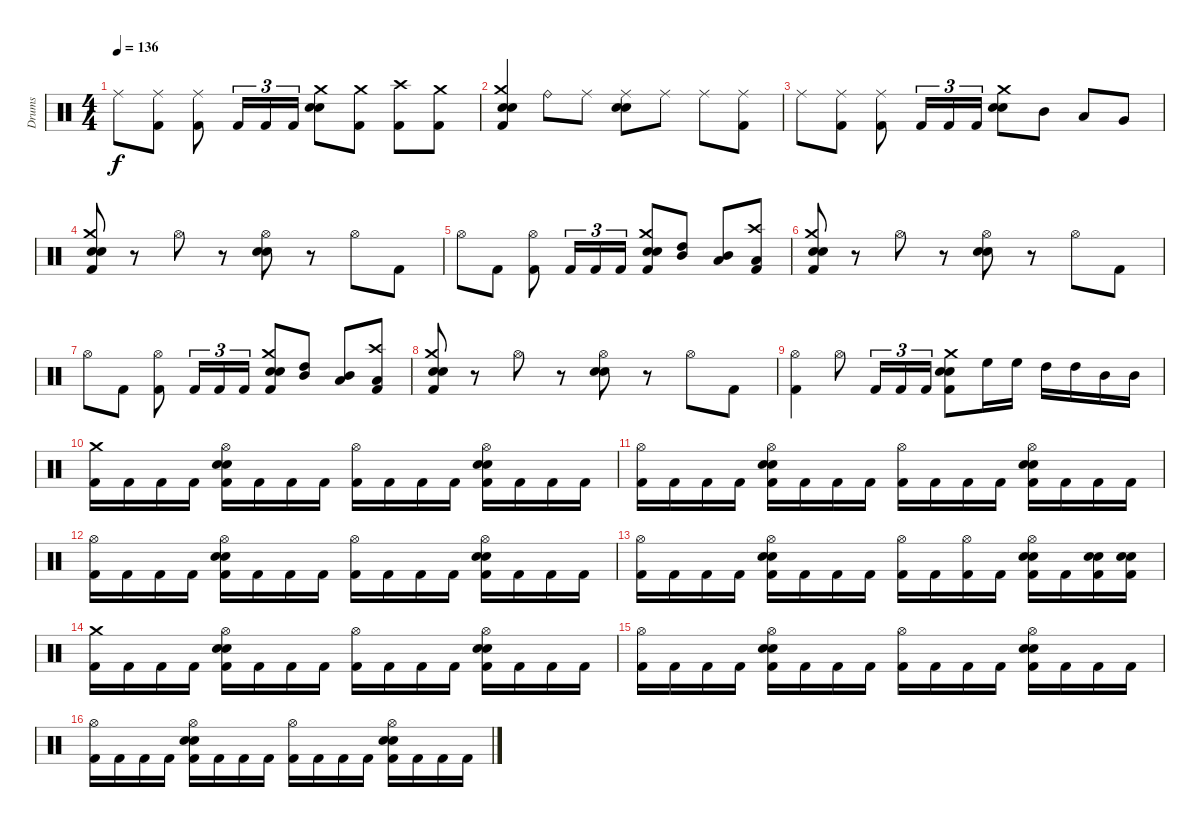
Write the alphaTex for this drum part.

\track ("Drums" "Drums") {instrument percussion}
\staff {score}
\articulation defaults
\ts (4 4)
\tempo 136
\clef neutral
\ks c "Ride (middle)".8{dy f}
("Ride (middle)" "Kick (hit) 2").8 ("Ride (middle)" "Kick (hit) 2").8 "Kick (hit) 2".16{tu (3 2)} "Kick (hit) 2".16{tu (3 2)} "Kick (hit) 2".16{tu (3 2)} ("Crash medium (hit)" "Electric Snare (hit)" "Snare (hit) 2").8 ("Crash medium (hit)" "Kick (hit) 2").8 ("Crash high (hit)" "Kick (hit) 2").8 ("Crash medium (hit)" "Kick (hit) 2").8 |
("Crash medium (hit)" "Electric Snare (hit)" "Snare (hit) 2" "Kick (hit) 2").4 "Ride (bell)".8 "Ride (middle)".8 ("Ride (middle)" "Electric Snare (hit)" "Snare (hit) 2").8 "Ride (middle)".8 "Ride (middle)".8 ("Ride (middle)" "Kick (hit) 2").8 |
"Ride (middle)".8 ("Ride (middle)" "Kick (hit) 2").8 ("Ride (middle)" "Kick (hit) 2").8 "Kick (hit) 2".16{tu (3 2)} "Kick (hit) 2".16{tu (3 2)} "Kick (hit) 2".16{tu (3 2)} ("Crash medium (hit)" "Electric Snare (hit)" "Snare (hit) 2").8 "Mid Tom (hit)".8 "Low Tom (hit)".8 "Very Low Tom (hit)".8 |
("Crash medium (hit)" "Electric Snare (hit)" "Snare (hit) 2" "Kick (hit) 2").8 r.8 "Hi-Hat (open)".8 r.8 ("Hi-Hat (open)" "Electric Snare (hit)" "Snare (hit) 2").8 r.8 "Hi-Hat (open)".8 "Kick (hit) 2".8 |
"Hi-Hat (open)".8 "Kick (hit) 2".8 ("Hi-Hat (open)" "Kick (hit) 2").8 "Kick (hit) 2".16{tu (3 2)} "Kick (hit) 2".16{tu (3 2)} "Kick (hit) 2".16{tu (3 2)} ("Crash medium (hit)" "Electric Snare (hit)" "Snare (hit) 2" "Kick (hit) 2").8 ("High Tom (hit)" "Mid Tom (hit)").8 ("Mid Tom (hit)" "Low Tom (hit)").8 ("Crash high (hit)" "Low Tom (hit)" "Kick (hit) 2").8 |
("Crash medium (hit)" "Electric Snare (hit)" "Snare (hit) 2" "Kick (hit) 2").8 r.8 "Hi-Hat (open)".8 r.8 ("Hi-Hat (open)" "Electric Snare (hit)" "Snare (hit) 2").8 r.8 "Hi-Hat (open)".8 "Kick (hit) 2".8 |
"Hi-Hat (open)".8 "Kick (hit) 2".8 ("Hi-Hat (open)" "Kick (hit) 2").8 "Kick (hit) 2".16{tu (3 2)} "Kick (hit) 2".16{tu (3 2)} "Kick (hit) 2".16{tu (3 2)} ("Crash medium (hit)" "Electric Snare (hit)" "Snare (hit) 2" "Kick (hit) 2").8 ("High Tom (hit)" "Mid Tom (hit)").8 ("Mid Tom (hit)" "Low Tom (hit)").8 ("Crash high (hit)" "Low Tom (hit)" "Kick (hit) 2").8 |
("Crash medium (hit)" "Electric Snare (hit)" "Snare (hit) 2" "Kick (hit) 2").8 r.8 "Hi-Hat (open)".8 r.8 ("Hi-Hat (open)" "Electric Snare (hit)" "Snare (hit) 2").8 r.8 "Hi-Hat (open)".8 "Kick (hit) 2".8 |
("Hi-Hat (open)" "Kick (hit) 2").4 "Hi-Hat (open)".8 "Kick (hit) 2".16{tu (3 2)} "Kick (hit) 2".16{tu (3 2)} "Kick (hit) 2".16{tu (3 2)} ("Crash medium (hit)" "Electric Snare (hit)" "Snare (hit) 2" "Kick (hit) 2").8 "High Floor Tom (hit)".16 "High Floor Tom (hit)".16 "High Tom (hit)".16 "High Tom (hit)".16 "Mid Tom (hit)".16 "Mid Tom (hit)".16 |
("Crash medium (hit)" "Kick (hit) 2").16 "Kick (hit) 2".16 "Kick (hit) 2".16 "Kick (hit) 2".16 ("Hi-Hat (open)" "Electric Snare (hit)" "Snare (hit) 2" "Kick (hit) 2").16 "Kick (hit) 2".16 "Kick (hit) 2".16 "Kick (hit) 2".16 ("Hi-Hat (open)" "Kick (hit) 2").16 "Kick (hit) 2".16 "Kick (hit) 2".16 "Kick (hit) 2".16 ("Hi-Hat (open)" "Electric Snare (hit)" "Snare (hit) 2" "Kick (hit) 2").16 "Kick (hit) 2".16 "Kick (hit) 2".16 "Kick (hit) 2".16 |
("Hi-Hat (open)" "Kick (hit) 2").16 "Kick (hit) 2".16 "Kick (hit) 2".16 "Kick (hit) 2".16 ("Hi-Hat (open)" "Electric Snare (hit)" "Snare (hit) 2" "Kick (hit) 2").16 "Kick (hit) 2".16 "Kick (hit) 2".16 "Kick (hit) 2".16 ("Hi-Hat (open)" "Kick (hit) 2").16 "Kick (hit) 2".16 "Kick (hit) 2".16 "Kick (hit) 2".16 ("Hi-Hat (open)" "Electric Snare (hit)" "Snare (hit) 2" "Kick (hit) 2").16 "Kick (hit) 2".16 "Kick (hit) 2".16 "Kick (hit) 2".16 |
("Hi-Hat (open)" "Kick (hit) 2").16 "Kick (hit) 2".16 "Kick (hit) 2".16 "Kick (hit) 2".16 ("Hi-Hat (open)" "Electric Snare (hit)" "Snare (hit) 2" "Kick (hit) 2").16 "Kick (hit) 2".16 "Kick (hit) 2".16 "Kick (hit) 2".16 ("Hi-Hat (open)" "Kick (hit) 2").16 "Kick (hit) 2".16 "Kick (hit) 2".16 "Kick (hit) 2".16 ("Hi-Hat (open)" "Electric Snare (hit)" "Snare (hit) 2" "Kick (hit) 2").16 "Kick (hit) 2".16 "Kick (hit) 2".16 "Kick (hit) 2".16 |
("Hi-Hat (open)" "Kick (hit) 2").16 "Kick (hit) 2".16 "Kick (hit) 2".16 "Kick (hit) 2".16 ("Hi-Hat (open)" "Electric Snare (hit)" "Snare (hit) 2" "Kick (hit) 2").16 "Kick (hit) 2".16 "Kick (hit) 2".16 "Kick (hit) 2".16 ("Hi-Hat (open)" "Kick (hit) 2").16 "Kick (hit) 2".16 ("Hi-Hat (open)" "Kick (hit) 2").16 "Kick (hit) 2".16 ("Hi-Hat (open)" "Electric Snare (hit)" "Snare (hit) 2" "Kick (hit) 2").16 "Kick (hit) 2".16 ("Electric Snare (hit)" "Snare (hit) 2" "Kick (hit) 2").16 ("Electric Snare (hit)" "Snare (hit) 2" "Kick (hit) 2").16 |
("Crash medium (hit)" "Kick (hit) 2").16 "Kick (hit) 2".16 "Kick (hit) 2".16 "Kick (hit) 2".16 ("Hi-Hat (open)" "Electric Snare (hit)" "Snare (hit) 2" "Kick (hit) 2").16 "Kick (hit) 2".16 "Kick (hit) 2".16 "Kick (hit) 2".16 ("Hi-Hat (open)" "Kick (hit) 2").16 "Kick (hit) 2".16 "Kick (hit) 2".16 "Kick (hit) 2".16 ("Hi-Hat (open)" "Electric Snare (hit)" "Snare (hit) 2" "Kick (hit) 2").16 "Kick (hit) 2".16 "Kick (hit) 2".16 "Kick (hit) 2".16 |
("Hi-Hat (open)" "Kick (hit) 2").16 "Kick (hit) 2".16 "Kick (hit) 2".16 "Kick (hit) 2".16 ("Hi-Hat (open)" "Electric Snare (hit)" "Snare (hit) 2" "Kick (hit) 2").16 "Kick (hit) 2".16 "Kick (hit) 2".16 "Kick (hit) 2".16 ("Hi-Hat (open)" "Kick (hit) 2").16 "Kick (hit) 2".16 "Kick (hit) 2".16 "Kick (hit) 2".16 ("Hi-Hat (open)" "Electric Snare (hit)" "Snare (hit) 2" "Kick (hit) 2").16 "Kick (hit) 2".16 "Kick (hit) 2".16 "Kick (hit) 2".16 |
("Hi-Hat (open)" "Kick (hit) 2").16 "Kick (hit) 2".16 "Kick (hit) 2".16 "Kick (hit) 2".16 ("Hi-Hat (open)" "Electric Snare (hit)" "Snare (hit) 2" "Kick (hit) 2").16 "Kick (hit) 2".16 "Kick (hit) 2".16 "Kick (hit) 2".16 ("Hi-Hat (open)" "Kick (hit) 2").16 "Kick (hit) 2".16 "Kick (hit) 2".16 "Kick (hit) 2".16 ("Hi-Hat (open)" "Electric Snare (hit)" "Snare (hit) 2" "Kick (hit) 2").16 "Kick (hit) 2".16 "Kick (hit) 2".16 "Kick (hit) 2".16
